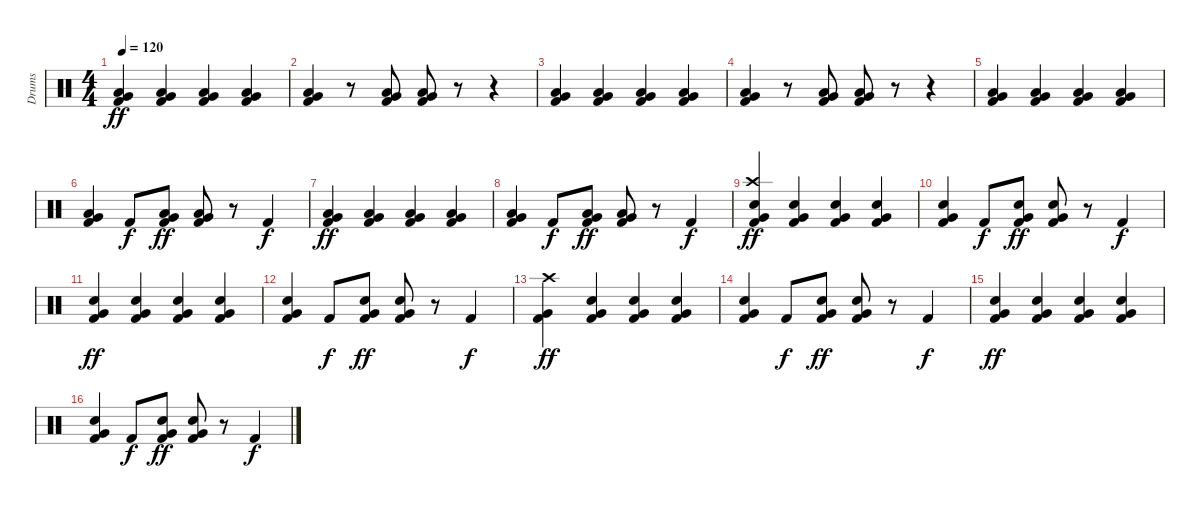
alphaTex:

\track ("Drums" "Drums") {instrument percussion}
\staff {score}
\articulation defaults
\ts (4 4)
\tempo 120
\clef neutral
\ks c
("Low Floor Tom (hit)" "Very Low Tom (hit)" "Kick (hit) 2").4{dy ff} ("Low Floor Tom (hit)" "Very Low Tom (hit)" "Kick (hit) 2").4 ("Low Floor Tom (hit)" "Very Low Tom (hit)" "Kick (hit) 2").4 ("Low Floor Tom (hit)" "Very Low Tom (hit)" "Kick (hit) 2").4 |
("Low Floor Tom (hit)" "Very Low Tom (hit)" "Kick (hit) 2").4 r.8 ("Low Floor Tom (hit)" "Very Low Tom (hit)" "Kick (hit) 2").8 ("Low Floor Tom (hit)" "Very Low Tom (hit)" "Kick (hit) 2").8 r.8 r.4 |
("Low Floor Tom (hit)" "Very Low Tom (hit)" "Kick (hit) 2").4 ("Low Floor Tom (hit)" "Very Low Tom (hit)" "Kick (hit) 2").4 ("Low Floor Tom (hit)" "Very Low Tom (hit)" "Kick (hit) 2").4 ("Low Floor Tom (hit)" "Very Low Tom (hit)" "Kick (hit) 2").4 |
("Low Floor Tom (hit)" "Very Low Tom (hit)" "Kick (hit) 2").4 r.8 ("Low Floor Tom (hit)" "Very Low Tom (hit)" "Kick (hit) 2").8 ("Low Floor Tom (hit)" "Very Low Tom (hit)" "Kick (hit) 2").8 r.8 r.4 |
("Low Floor Tom (hit)" "Very Low Tom (hit)" "Kick (hit) 2").4 ("Low Floor Tom (hit)" "Very Low Tom (hit)" "Kick (hit) 2").4 ("Low Floor Tom (hit)" "Very Low Tom (hit)" "Kick (hit) 2").4 ("Low Floor Tom (hit)" "Very Low Tom (hit)" "Kick (hit) 2").4 |
("Low Floor Tom (hit)" "Very Low Tom (hit)" "Kick (hit) 2").4 "Kick (hit) 2".8{dy f} ("Low Floor Tom (hit)" "Very Low Tom (hit)" "Kick (hit) 2").8{dy ff} ("Low Floor Tom (hit)" "Very Low Tom (hit)" "Kick (hit) 2").8 r.8 "Kick (hit) 2".4{dy f} |
("Low Floor Tom (hit)" "Very Low Tom (hit)" "Kick (hit) 2").4{dy ff} ("Low Floor Tom (hit)" "Very Low Tom (hit)" "Kick (hit) 2").4 ("Low Floor Tom (hit)" "Very Low Tom (hit)" "Kick (hit) 2").4 ("Low Floor Tom (hit)" "Very Low Tom (hit)" "Kick (hit) 2").4 |
("Low Floor Tom (hit)" "Very Low Tom (hit)" "Kick (hit) 2").4 "Kick (hit) 2".8{dy f} ("Low Floor Tom (hit)" "Very Low Tom (hit)" "Kick (hit) 2").8{dy ff} ("Low Floor Tom (hit)" "Very Low Tom (hit)" "Kick (hit) 2").8 r.8 "Kick (hit) 2".4{dy f} |
("Crash high (hit)" "Electric Snare (hit)" "Very Low Tom (hit)" "Kick (hit) 2").4{dy ff} ("Electric Snare (hit)" "Very Low Tom (hit)" "Kick (hit) 2").4 ("Electric Snare (hit)" "Very Low Tom (hit)" "Kick (hit) 2").4 ("Electric Snare (hit)" "Very Low Tom (hit)" "Kick (hit) 2").4 |
("Electric Snare (hit)" "Very Low Tom (hit)" "Kick (hit) 2").4 "Kick (hit) 2".8{dy f} ("Electric Snare (hit)" "Very Low Tom (hit)" "Kick (hit) 2").8{dy ff} ("Electric Snare (hit)" "Very Low Tom (hit)" "Kick (hit) 2").8 r.8 "Kick (hit) 2".4{dy f} |
("Electric Snare (hit)" "Very Low Tom (hit)" "Kick (hit) 2").4{dy ff} ("Electric Snare (hit)" "Very Low Tom (hit)" "Kick (hit) 2").4 ("Electric Snare (hit)" "Very Low Tom (hit)" "Kick (hit) 2").4 ("Electric Snare (hit)" "Very Low Tom (hit)" "Kick (hit) 2").4 |
("Electric Snare (hit)" "Very Low Tom (hit)" "Kick (hit) 2").4 "Kick (hit) 2".8{dy f} ("Electric Snare (hit)" "Very Low Tom (hit)" "Kick (hit) 2").8{dy ff} ("Electric Snare (hit)" "Very Low Tom (hit)" "Kick (hit) 2").8 r.8 "Kick (hit) 2".4{dy f} |
("Crash high (hit)" "Very Low Tom (hit)" "Kick (hit) 2").4{dy ff} ("Electric Snare (hit)" "Very Low Tom (hit)" "Kick (hit) 2").4 ("Electric Snare (hit)" "Very Low Tom (hit)" "Kick (hit) 2").4 ("Electric Snare (hit)" "Very Low Tom (hit)" "Kick (hit) 2").4 |
("Electric Snare (hit)" "Very Low Tom (hit)" "Kick (hit) 2").4 "Kick (hit) 2".8{dy f} ("Electric Snare (hit)" "Very Low Tom (hit)" "Kick (hit) 2").8{dy ff} ("Electric Snare (hit)" "Very Low Tom (hit)" "Kick (hit) 2").8 r.8 "Kick (hit) 2".4{dy f} |
("Electric Snare (hit)" "Very Low Tom (hit)" "Kick (hit) 2").4{dy ff} ("Electric Snare (hit)" "Very Low Tom (hit)" "Kick (hit) 2").4 ("Electric Snare (hit)" "Very Low Tom (hit)" "Kick (hit) 2").4 ("Electric Snare (hit)" "Very Low Tom (hit)" "Kick (hit) 2").4 |
("Electric Snare (hit)" "Very Low Tom (hit)" "Kick (hit) 2").4 "Kick (hit) 2".8{dy f} ("Electric Snare (hit)" "Very Low Tom (hit)" "Kick (hit) 2").8{dy ff} ("Electric Snare (hit)" "Very Low Tom (hit)" "Kick (hit) 2").8 r.8 "Kick (hit) 2".4{dy f}
